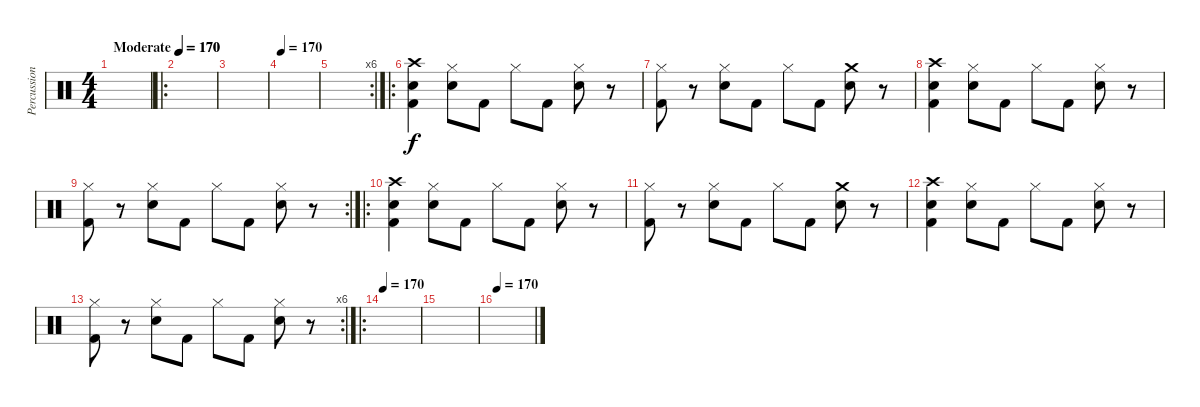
\track ("Percussion" "Percussion") {instrument percussion}
\staff {score}
\articulation defaults
\ts (4 4)
\tempo (170 "Moderate")
\clef neutral
\ks c
|
\ro
\tempo 170
|
|
\tempo 170
|
\rc 6
|
\ro
("Crash high (hit)" "Snare (hit) 2" "Kick (hit) 2").4 ("Hi-Hat (closed)" "Snare (hit) 2").8 "Kick (hit) 2".8 "Hi-Hat (closed)".8 "Kick (hit) 2".8 ("Hi-Hat (closed)" "Snare (hit) 2").8 r.8 |
("Hi-Hat (closed)" "Kick (hit) 2").8 r.8 ("Hi-Hat (closed)" "Snare (hit) 2").8 "Kick (hit) 2".8 "Hi-Hat (closed)".8 "Kick (hit) 2".8 ("Crash medium (hit)" "Snare (hit) 2").8 r.8 |
("Crash high (hit)" "Snare (hit) 2" "Kick (hit) 2").4 ("Hi-Hat (closed)" "Snare (hit) 2").8 "Kick (hit) 2".8 "Hi-Hat (closed)".8 "Kick (hit) 2".8 ("Hi-Hat (closed)" "Snare (hit) 2").8 r.8 |
\rc 2
("Hi-Hat (closed)" "Kick (hit) 2").8 r.8 ("Hi-Hat (closed)" "Snare (hit) 2").8 "Kick (hit) 2".8 "Hi-Hat (closed)".8 "Kick (hit) 2".8 ("Hi-Hat (closed)" "Snare (hit) 2").8 r.8 |
\ro
("Crash high (hit)" "Snare (hit) 2" "Kick (hit) 2").4 ("Hi-Hat (closed)" "Snare (hit) 2").8 "Kick (hit) 2".8 "Hi-Hat (closed)".8 "Kick (hit) 2".8 ("Hi-Hat (closed)" "Snare (hit) 2").8 r.8 |
("Hi-Hat (closed)" "Kick (hit) 2").8 r.8 ("Hi-Hat (closed)" "Snare (hit) 2").8 "Kick (hit) 2".8 "Hi-Hat (closed)".8 "Kick (hit) 2".8 ("Crash medium (hit)" "Snare (hit) 2").8 r.8 |
("Crash high (hit)" "Snare (hit) 2" "Kick (hit) 2").4 ("Hi-Hat (closed)" "Snare (hit) 2").8 "Kick (hit) 2".8 "Hi-Hat (closed)".8 "Kick (hit) 2".8 ("Hi-Hat (closed)" "Snare (hit) 2").8 r.8 |
\rc 6
("Hi-Hat (closed)" "Kick (hit) 2").8 r.8 ("Hi-Hat (closed)" "Snare (hit) 2").8 "Kick (hit) 2".8 "Hi-Hat (closed)".8 "Kick (hit) 2".8 ("Hi-Hat (closed)" "Snare (hit) 2").8 r.8 |
\ro
\tempo 170
|
|
\tempo 170
